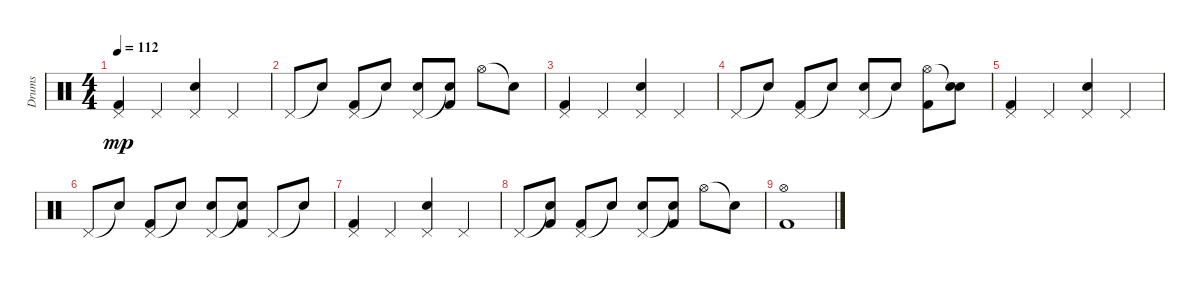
\track ("Drums" "Drums") {instrument percussion}
\staff {score}
\articulation defaults
\ts (4 4)
\tempo 112
\clef neutral
\ks c
("Pedal Hi-Hat (hit)" "Kick (hit) 2").4{dy mp} "Pedal Hi-Hat (hit)".4 ("Pedal Hi-Hat (hit)" "Electric Snare (hit)").4 "Pedal Hi-Hat (hit)".4 |
"Pedal Hi-Hat (hit)".8 "Snare (hit)"{t}.8 ("Pedal Hi-Hat (hit)" "Kick (hit) 2").8 "Snare (hit)"{t}.8 ("Pedal Hi-Hat (hit)" "Electric Snare (hit)").8 ("Snare (hit)"{t} "Kick (hit) 2").8 "Hi-Hat (open)".8 "Snare (hit)"{t}.8 |
("Pedal Hi-Hat (hit)" "Kick (hit) 2").4 "Pedal Hi-Hat (hit)".4 ("Pedal Hi-Hat (hit)" "Electric Snare (hit)").4 "Pedal Hi-Hat (hit)".4 |
"Pedal Hi-Hat (hit)".8 "Snare (hit)"{t}.8 ("Pedal Hi-Hat (hit)" "Kick (hit) 2").8 "Snare (hit)"{t}.8 ("Pedal Hi-Hat (hit)" "Electric Snare (hit)").8 "Snare (hit)"{t}.8 ("Hi-Hat (open)" "Kick (hit) 2").8 ("Snare (hit)"{t} "Electric Snare (hit)").8 |
("Pedal Hi-Hat (hit)" "Kick (hit) 2").4 "Pedal Hi-Hat (hit)".4 ("Pedal Hi-Hat (hit)" "Electric Snare (hit)").4 "Pedal Hi-Hat (hit)".4 |
"Pedal Hi-Hat (hit)".8 "Snare (hit)"{t}.8 ("Pedal Hi-Hat (hit)" "Kick (hit) 2").8 "Snare (hit)"{t}.8 ("Pedal Hi-Hat (hit)" "Electric Snare (hit)").8 ("Snare (hit)"{t} "Kick (hit) 2").8 "Pedal Hi-Hat (hit)".8 "Snare (hit)"{t}.8 |
("Pedal Hi-Hat (hit)" "Kick (hit) 2").4 "Pedal Hi-Hat (hit)".4 ("Pedal Hi-Hat (hit)" "Electric Snare (hit)").4 "Pedal Hi-Hat (hit)".4 |
"Pedal Hi-Hat (hit)".8 ("Snare (hit)"{t} "Kick (hit) 2").8 ("Pedal Hi-Hat (hit)" "Kick (hit) 2").8 "Snare (hit)"{t}.8 ("Pedal Hi-Hat (hit)" "Electric Snare (hit)").8 ("Snare (hit)"{t} "Kick (hit) 2").8 "Hi-Hat (open)".8 "Snare (hit)"{t}.8 |
("Hi-Hat (open)" "Kick (hit) 2").1
